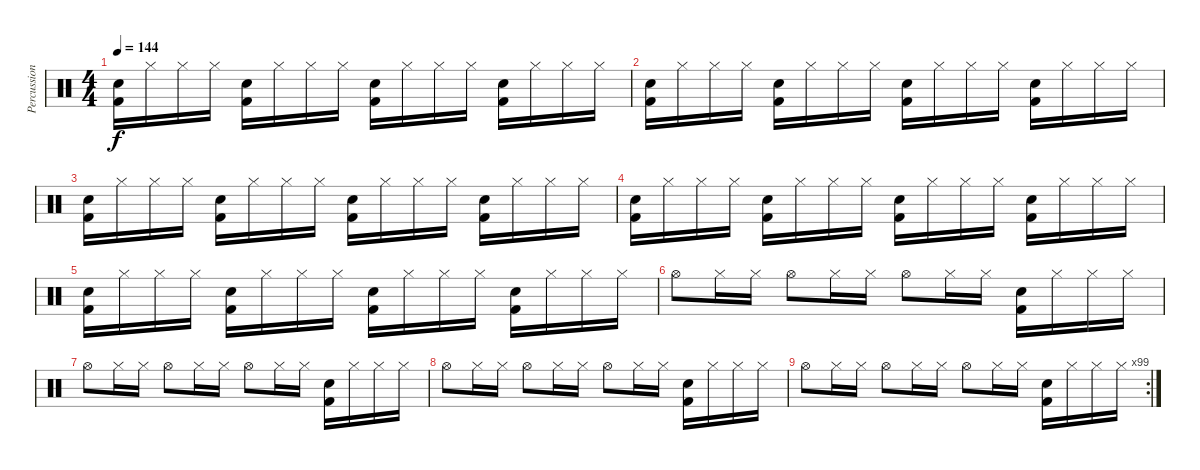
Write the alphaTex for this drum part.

\track ("Percussion" "Percussion") {instrument percussion}
\staff {score}
\articulation defaults
\ts (4 4)
\tempo 144
\clef neutral
\ks c
("Snare (hit) 2" "Kick (hit) 2").16{dy f} "Hi-Hat (closed)".16 "Hi-Hat (closed)".16 "Hi-Hat (closed)".16 ("Snare (hit) 2" "Kick (hit) 2").16 "Hi-Hat (closed)".16 "Hi-Hat (closed)".16 "Hi-Hat (closed)".16 ("Snare (hit) 2" "Kick (hit) 2").16 "Hi-Hat (closed)".16 "Hi-Hat (closed)".16 "Hi-Hat (closed)".16 ("Snare (hit) 2" "Kick (hit) 2").16 "Hi-Hat (closed)".16 "Hi-Hat (closed)".16 "Hi-Hat (closed)".16 |
("Snare (hit) 2" "Kick (hit) 2").16 "Hi-Hat (closed)".16 "Hi-Hat (closed)".16 "Hi-Hat (closed)".16 ("Snare (hit) 2" "Kick (hit) 2").16 "Hi-Hat (closed)".16 "Hi-Hat (closed)".16 "Hi-Hat (closed)".16 ("Snare (hit) 2" "Kick (hit) 2").16 "Hi-Hat (closed)".16 "Hi-Hat (closed)".16 "Hi-Hat (closed)".16 ("Snare (hit) 2" "Kick (hit) 2").16 "Hi-Hat (closed)".16 "Hi-Hat (closed)".16 "Hi-Hat (closed)".16 |
("Snare (hit) 2" "Kick (hit) 2").16 "Hi-Hat (closed)".16 "Hi-Hat (closed)".16 "Hi-Hat (closed)".16 ("Snare (hit) 2" "Kick (hit) 2").16 "Hi-Hat (closed)".16 "Hi-Hat (closed)".16 "Hi-Hat (closed)".16 ("Snare (hit) 2" "Kick (hit) 2").16 "Hi-Hat (closed)".16 "Hi-Hat (closed)".16 "Hi-Hat (closed)".16 ("Snare (hit) 2" "Kick (hit) 2").16 "Hi-Hat (closed)".16 "Hi-Hat (closed)".16 "Hi-Hat (closed)".16 |
("Snare (hit) 2" "Kick (hit) 2").16 "Hi-Hat (closed)".16 "Hi-Hat (closed)".16 "Hi-Hat (closed)".16 ("Snare (hit) 2" "Kick (hit) 2").16 "Hi-Hat (closed)".16 "Hi-Hat (closed)".16 "Hi-Hat (closed)".16 ("Snare (hit) 2" "Kick (hit) 2").16 "Hi-Hat (closed)".16 "Hi-Hat (closed)".16 "Hi-Hat (closed)".16 ("Snare (hit) 2" "Kick (hit) 2").16 "Hi-Hat (closed)".16 "Hi-Hat (closed)".16 "Hi-Hat (closed)".16 |
("Snare (hit) 2" "Kick (hit) 2").16 "Hi-Hat (closed)".16 "Hi-Hat (closed)".16 "Hi-Hat (closed)".16 ("Snare (hit) 2" "Kick (hit) 2").16 "Hi-Hat (closed)".16 "Hi-Hat (closed)".16 "Hi-Hat (closed)".16 ("Snare (hit) 2" "Kick (hit) 2").16 "Hi-Hat (closed)".16 "Hi-Hat (closed)".16 "Hi-Hat (closed)".16 ("Snare (hit) 2" "Kick (hit) 2").16 "Hi-Hat (closed)".16 "Hi-Hat (closed)".16 "Hi-Hat (closed)".16 |
"Hi-Hat (open)".8 "Hi-Hat (closed)".16 "Hi-Hat (closed)".16 "Hi-Hat (open)".8 "Hi-Hat (closed)".16 "Hi-Hat (closed)".16 "Hi-Hat (open)".8 "Hi-Hat (closed)".16 "Hi-Hat (closed)".16 ("Snare (hit) 2" "Kick (hit) 2").16 "Hi-Hat (closed)".16 "Hi-Hat (closed)".16 "Hi-Hat (closed)".16 |
"Hi-Hat (open)".8 "Hi-Hat (closed)".16 "Hi-Hat (closed)".16 "Hi-Hat (open)".8 "Hi-Hat (closed)".16 "Hi-Hat (closed)".16 "Hi-Hat (open)".8 "Hi-Hat (closed)".16 "Hi-Hat (closed)".16 ("Snare (hit) 2" "Kick (hit) 2").16 "Hi-Hat (closed)".16 "Hi-Hat (closed)".16 "Hi-Hat (closed)".16 |
"Hi-Hat (open)".8 "Hi-Hat (closed)".16 "Hi-Hat (closed)".16 "Hi-Hat (open)".8 "Hi-Hat (closed)".16 "Hi-Hat (closed)".16 "Hi-Hat (open)".8 "Hi-Hat (closed)".16 "Hi-Hat (closed)".16 ("Snare (hit) 2" "Kick (hit) 2").16 "Hi-Hat (closed)".16 "Hi-Hat (closed)".16 "Hi-Hat (closed)".16 |
\rc 99 "Hi-Hat (open)".8 "Hi-Hat (closed)".16 "Hi-Hat (closed)".16 "Hi-Hat (open)".8 "Hi-Hat (closed)".16 "Hi-Hat (closed)".16 "Hi-Hat (open)".8 "Hi-Hat (closed)".16 "Hi-Hat (closed)".16
("Snare (hit) 2" "Kick (hit) 2").16 "Hi-Hat (closed)".16 "Hi-Hat (closed)".16 "Hi-Hat (closed)".16
